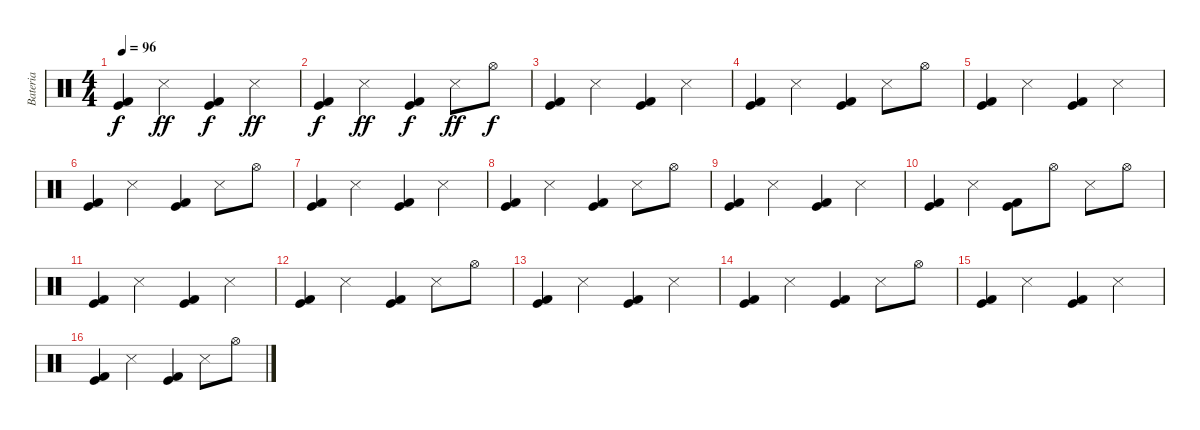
\track ("Bateria" "Bateria") {instrument percussion}
\staff {score}
\articulation defaults
\ts (4 4)
\tempo 96
\clef neutral
\ks c
("Kick (hit) 2" "Kick (hit)").4{dy f} "Snare (side stick) 3".4{dy ff} ("Kick (hit) 2" "Kick (hit)").4{dy f} "Snare (side stick) 3".4{dy ff} |
("Kick (hit) 2" "Kick (hit)").4{dy f} "Snare (side stick) 3".4{dy ff} ("Kick (hit) 2" "Kick (hit)").4{dy f} "Snare (side stick) 3".8{dy ff} "Hi-Hat (open)".8{dy f} |
("Kick (hit) 2" "Kick (hit)").4 "Snare (side stick) 3".4 ("Kick (hit) 2" "Kick (hit)").4 "Snare (side stick) 3".4 |
("Kick (hit) 2" "Kick (hit)").4 "Snare (side stick) 3".4 ("Kick (hit) 2" "Kick (hit)").4 "Snare (side stick) 3".8 "Hi-Hat (open)".8 |
("Kick (hit) 2" "Kick (hit)").4 "Snare (side stick) 3".4 ("Kick (hit) 2" "Kick (hit)").4 "Snare (side stick) 3".4 |
("Kick (hit) 2" "Kick (hit)").4 "Snare (side stick) 3".4 ("Kick (hit) 2" "Kick (hit)").4 "Snare (side stick) 3".8 "Hi-Hat (open)".8 |
("Kick (hit) 2" "Kick (hit)").4 "Snare (side stick) 3".4 ("Kick (hit) 2" "Kick (hit)").4 "Snare (side stick) 3".4 |
("Kick (hit) 2" "Kick (hit)").4 "Snare (side stick) 3".4 ("Kick (hit) 2" "Kick (hit)").4 "Snare (side stick) 3".8 "Hi-Hat (open)".8 |
("Kick (hit) 2" "Kick (hit)").4 "Snare (side stick) 3".4 ("Kick (hit) 2" "Kick (hit)").4 "Snare (side stick) 3".4 |
("Kick (hit) 2" "Kick (hit)").4 "Snare (side stick) 3".4 ("Kick (hit) 2" "Kick (hit)").8 "Hi-Hat (open)".8 "Snare (side stick) 3".8 "Hi-Hat (open)".8 |
("Kick (hit) 2" "Kick (hit)").4 "Snare (side stick) 3".4 ("Kick (hit) 2" "Kick (hit)").4 "Snare (side stick) 3".4 |
("Kick (hit) 2" "Kick (hit)").4 "Snare (side stick) 3".4 ("Kick (hit) 2" "Kick (hit)").4 "Snare (side stick) 3".8 "Hi-Hat (open)".8 |
("Kick (hit) 2" "Kick (hit)").4 "Snare (side stick) 3".4 ("Kick (hit) 2" "Kick (hit)").4 "Snare (side stick) 3".4 |
("Kick (hit) 2" "Kick (hit)").4 "Snare (side stick) 3".4 ("Kick (hit) 2" "Kick (hit)").4 "Snare (side stick) 3".8 "Hi-Hat (open)".8 |
("Kick (hit) 2" "Kick (hit)").4 "Snare (side stick) 3".4 ("Kick (hit) 2" "Kick (hit)").4 "Snare (side stick) 3".4 |
("Kick (hit) 2" "Kick (hit)").4 "Snare (side stick) 3".4 ("Kick (hit) 2" "Kick (hit)").4 "Snare (side stick) 3".8 "Hi-Hat (open)".8
